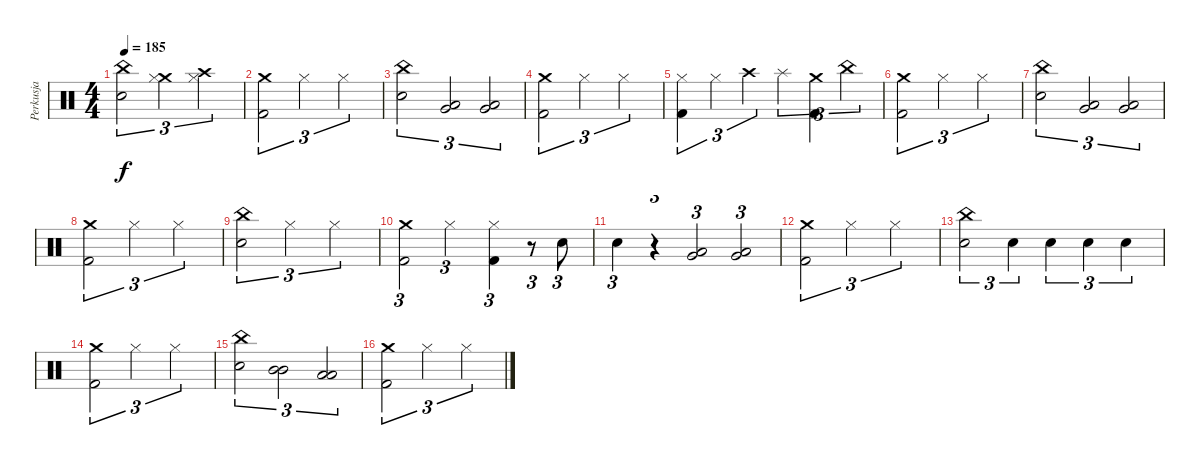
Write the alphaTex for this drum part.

\track ("Perkusja" "Perkusja") {instrument percussion}
\staff {score}
\articulation defaults
\ts (4 4)
\tempo 185
\clef neutral
\ks c
("Snare (hit) 2" "China (hit)").2{tu (3 2) dy f} ("Crash medium (hit)" "Hi-Hat (closed)").2{tu (3 2)} ("Crash high (hit)" "Hi-Hat (closed)").2{tu (3 2)} |
("Kick (hit) 2" "Crash medium (hit)").2{tu (3 2)} "Hi-Hat (closed)".2{tu (3 2)} "Hi-Hat (closed)".2{tu (3 2)} |
("China (hit)" "Snare (hit) 2").2{tu (3 2)} ("Low Tom (hit)" "Very Low Tom (hit)").2{tu (3 2)} ("Very Low Tom (hit)" "Low Floor Tom (hit)").2{tu (3 2)} |
("Kick (hit) 2" "Crash medium (hit)").2{tu (3 2)} "Hi-Hat (closed)".2{tu (3 2)} "Hi-Hat (closed)".2{tu (3 2)} |
("Hi-Hat (closed)" "Kick (hit) 2").4{tu (3 2)} "Hi-Hat (closed)".4{tu (3 2)} "Crash high (hit)".4{tu (3 2)} "Splash (hit)".4{tu (3 2)} ("Crash medium (hit)" "Kick (hit) 2").4{tu (3 2)} "China (hit)".4{tu (3 2)} |
("Kick (hit) 2" "Crash medium (hit)").2{tu (3 2)} "Hi-Hat (closed)".2{tu (3 2)} "Hi-Hat (closed)".2{tu (3 2)} |
("China (hit)" "Snare (hit) 2").2{tu (3 2)} ("Low Tom (hit)" "Very Low Tom (hit)").2{tu (3 2)} ("Very Low Tom (hit)" "Low Floor Tom (hit)").2{tu (3 2)} |
("Kick (hit) 2" "Crash medium (hit)").2{tu (3 2)} "Hi-Hat (closed)".2{tu (3 2)} "Hi-Hat (closed)".2{tu (3 2)} |
("Snare (hit) 2" "China (hit)").2{tu (3 2)} "Hi-Hat (closed)".2{tu (3 2)} "Hi-Hat (closed)".2{tu (3 2)} |
("Kick (hit) 2" "Crash medium (hit)").2{tu (3 2)} "Hi-Hat (closed)".2{tu (3 2)} ("Kick (hit) 2" "Hi-Hat (closed)").4{tu (3 2)} r.8{tu (3 2)} "Snare (hit) 2".8{tu (3 2)} |
"Snare (hit) 2".4{tu (3 2)} r.4{tu (3 2)} ("Low Tom (hit)" "Very Low Tom (hit)").2{tu (3 2)} ("Very Low Tom (hit)" "Low Floor Tom (hit)").2{tu (3 2)} |
("Kick (hit) 2" "Crash medium (hit)").2{tu (3 2)} "Hi-Hat (closed)".2{tu (3 2)} "Hi-Hat (closed)".2{tu (3 2)} |
("Snare (hit) 2" "China (hit)").2{tu (3 2)} "Snare (hit) 2".4{tu (3 2)} "Snare (hit) 2".4{tu (3 2)} "Snare (hit) 2".4{tu (3 2)} "Snare (hit) 2".4{tu (3 2)} |
("Kick (hit) 2" "Crash medium (hit)").2{tu (3 2)} "Hi-Hat (closed)".2{tu (3 2)} "Hi-Hat (closed)".2{tu (3 2)} |
("China (hit)" "Snare (hit) 2").2{tu (3 2)} ("Mid Tom (hit)" "Mid Tom (hit)").2{tu (3 2)} ("Low Tom (hit)" "Low Tom (hit)").2{tu (3 2)} |
("Kick (hit) 2" "Crash medium (hit)").2{tu (3 2)} "Hi-Hat (closed)".2{tu (3 2)} "Hi-Hat (closed)".2{tu (3 2)}
